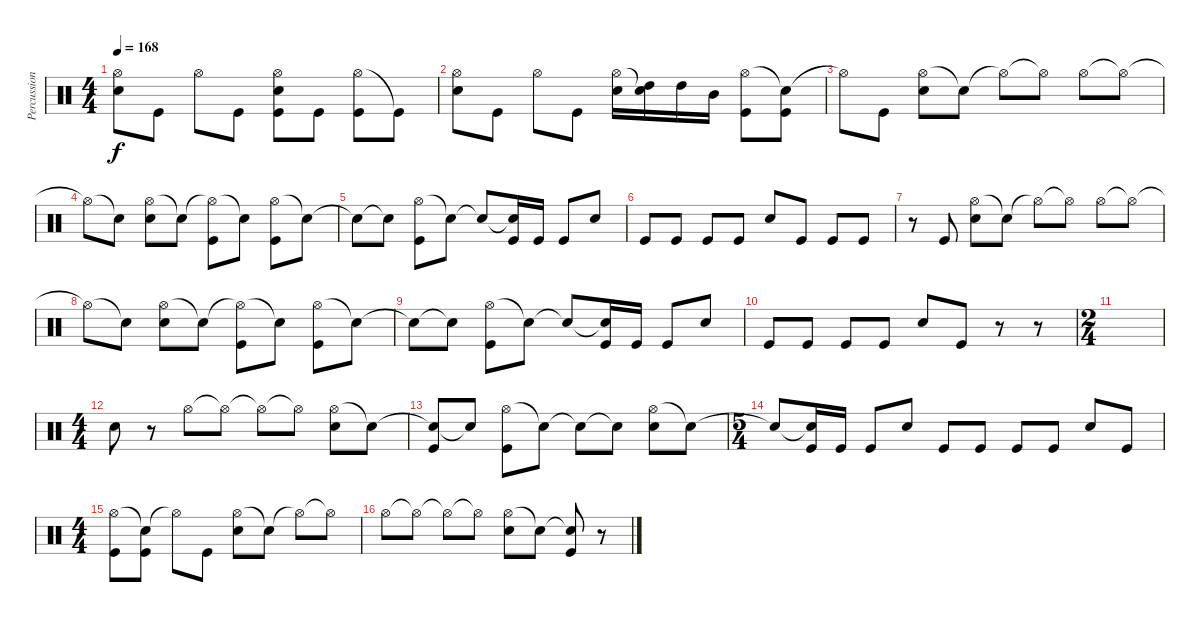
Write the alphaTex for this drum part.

\track ("Percussions" "Percussion") {instrument percussion}
\staff {score}
\articulation defaults
\ts (4 4)
\tempo 168
\clef neutral
\ks c
("Hi-Hat (open)" "Snare (hit) 2").8{dy f} "Kick (hit)".8 "Hi-Hat (open)".8 "Kick (hit)".8 ("Hi-Hat (open)" "Kick (hit)" "Snare (hit) 2").8 "Kick (hit)".8 ("Hi-Hat (open)" "Kick (hit)").8 "Kick (hit)"{t}.8 |
("Hi-Hat (open)" "Snare (hit) 2").8 "Kick (hit)".8 "Hi-Hat (open)".8 "Kick (hit)".8 ("Hi-Hat (open)" "Snare (hit) 2").16 ("Snare (hit)"{t} "High Tom (hit)").16 "High Tom (hit)".16 "Mid Tom (hit)".16 ("Hi-Hat (open)" "Kick (hit)").8 ("Snare (hit)"{t} "Kick (hit)").8 |
"Hi-Hat (open)"{t}.8 "Kick (hit)".8 ("Hi-Hat (open)" "Snare (hit) 2").8 "Snare (hit)"{t}.8 "Hi-Hat (open)"{t}.8 "Hi-Hat (open)"{t}.8 "Hi-Hat (open)".8 "Hi-Hat (open)"{t}.8 |
"Hi-Hat (open)"{t}.8 "Snare (hit)"{t}.8 ("Hi-Hat (open)" "Snare (hit) 2").8 "Snare (hit)"{t}.8 ("Hi-Hat (open)"{t} "Kick (hit)").8 "Snare (hit)"{t}.8 ("Hi-Hat (open)" "Kick (hit)").8 "Snare (hit)"{t}.8 |
"Snare (hit)"{t}.8 "Snare (hit)"{t}.8 ("Hi-Hat (open)" "Kick (hit)").8 "Snare (hit)"{t}.8 "Snare (hit)"{t}.8 ("Snare (hit)"{t} "Kick (hit)").16 "Kick (hit)".16 "Kick (hit)".8 "Snare (hit) 2".8 |
"Kick (hit)".8 "Kick (hit)".8 "Kick (hit)".8 "Kick (hit)".8 "Snare (hit) 2".8 "Kick (hit)".8 "Kick (hit)".8 "Kick (hit)".8 |
r.8 "Kick (hit)".8 ("Hi-Hat (open)" "Snare (hit) 2").8 "Snare (hit)"{t}.8 "Hi-Hat (open)"{t}.8 "Hi-Hat (open)"{t}.8 "Hi-Hat (open)".8 "Hi-Hat (open)"{t}.8 |
"Hi-Hat (open)"{t}.8 "Snare (hit)"{t}.8 ("Hi-Hat (open)" "Snare (hit) 2").8 "Snare (hit)"{t}.8 ("Hi-Hat (open)"{t} "Kick (hit)").8 "Snare (hit)"{t}.8 ("Hi-Hat (open)" "Kick (hit)").8 "Snare (hit)"{t}.8 |
"Snare (hit)"{t}.8 "Snare (hit)"{t}.8 ("Hi-Hat (open)" "Kick (hit)").8 "Snare (hit)"{t}.8 "Snare (hit)"{t}.8 ("Snare (hit)"{t} "Kick (hit)").16 "Kick (hit)".16 "Kick (hit)".8 "Snare (hit) 2".8 |
"Kick (hit)".8 "Kick (hit)".8 "Kick (hit)".8 "Kick (hit)".8 "Snare (hit) 2".8 "Kick (hit)".8 r.8 r.8 |
\ts (2 4)
|
\ts (4 4)
"Snare (hit) 2".8 r.8 "Hi-Hat (open)".8 "Hi-Hat (open)"{t}.8 "Hi-Hat (open)"{t}.8 "Hi-Hat (open)"{t}.8 ("Hi-Hat (open)" "Snare (hit) 2").8 "Snare (hit)"{t}.8 |
("Snare (hit)"{t} "Kick (hit)").8 "Snare (hit)"{t}.8 ("Hi-Hat (open)" "Kick (hit)").8 "Snare (hit)"{t}.8 "Snare (hit)"{t}.8 "Snare (hit)"{t}.8 ("Hi-Hat (open)" "Snare (hit) 2").8 "Snare (hit)"{t}.8 |
\ts (5 4)
"Snare (hit)"{t}.8 ("Snare (hit)"{t} "Kick (hit)").16 "Kick (hit)".16 "Kick (hit)".8 "Snare (hit) 2".8 "Kick (hit)".8 "Kick (hit)".8 "Kick (hit)".8 "Kick (hit)".8 "Snare (hit) 2".8 "Kick (hit)".8 |
\ts (4 4)
("Hi-Hat (open)" "Kick (hit)").8 ("Snare (hit)"{t} "Kick (hit)").8 "Hi-Hat (open)"{t}.8 "Kick (hit)".8 ("Hi-Hat (open)" "Snare (hit) 2").8 "Snare (hit)"{t}.8 "Hi-Hat (open)"{t}.8 "Hi-Hat (open)"{t}.8 |
"Hi-Hat (open)".8 "Hi-Hat (open)"{t}.8 "Hi-Hat (open)"{t}.8 "Hi-Hat (open)"{t}.8 ("Hi-Hat (open)" "Snare (hit) 2").8 "Snare (hit)"{t}.8 ("Snare (hit)"{t} "Kick (hit)").8 r.8
